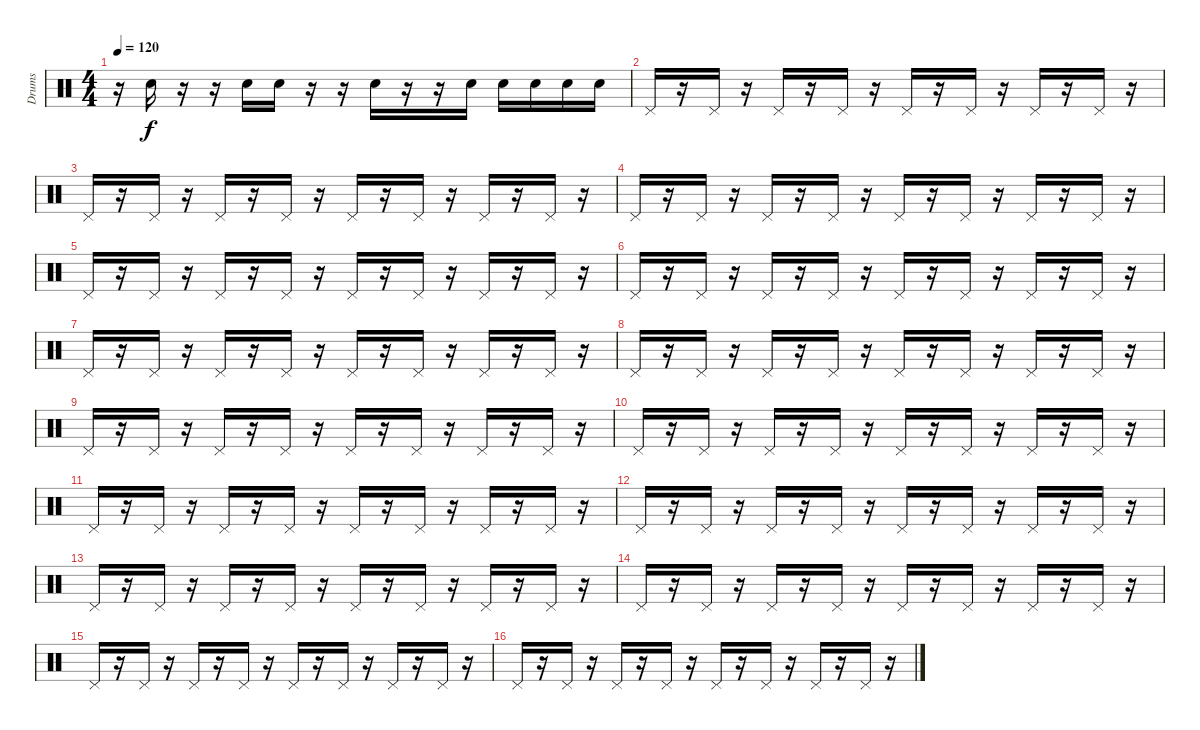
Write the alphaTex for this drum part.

\track ("Drums" "Drums") {instrument percussion}
\staff {score}
\articulation defaults
\ts (4 4)
\tempo 120
\clef neutral
\ks c
r.16{dy f} "Electric Snare (hit)".16 r.16 r.16 "Electric Snare (hit)".16 "Electric Snare (hit)".16 r.16 r.16 "Electric Snare (hit)".16 r.16 r.16 "Electric Snare (hit)".16 "Electric Snare (hit)".16 "Electric Snare (hit)".16 "Electric Snare (hit)".16 "Electric Snare (hit)".16 |
"Pedal Hi-Hat (hit)".16 r.16 "Pedal Hi-Hat (hit)".16 r.16 "Pedal Hi-Hat (hit)".16 r.16 "Pedal Hi-Hat (hit)".16 r.16 "Pedal Hi-Hat (hit)".16 r.16 "Pedal Hi-Hat (hit)".16 r.16 "Pedal Hi-Hat (hit)".16 r.16 "Pedal Hi-Hat (hit)".16 r.16 |
"Pedal Hi-Hat (hit)".16 r.16 "Pedal Hi-Hat (hit)".16 r.16 "Pedal Hi-Hat (hit)".16 r.16 "Pedal Hi-Hat (hit)".16 r.16 "Pedal Hi-Hat (hit)".16 r.16 "Pedal Hi-Hat (hit)".16 r.16 "Pedal Hi-Hat (hit)".16 r.16 "Pedal Hi-Hat (hit)".16 r.16 |
"Pedal Hi-Hat (hit)".16 r.16 "Pedal Hi-Hat (hit)".16 r.16 "Pedal Hi-Hat (hit)".16 r.16 "Pedal Hi-Hat (hit)".16 r.16 "Pedal Hi-Hat (hit)".16 r.16 "Pedal Hi-Hat (hit)".16 r.16 "Pedal Hi-Hat (hit)".16 r.16 "Pedal Hi-Hat (hit)".16 r.16 |
"Pedal Hi-Hat (hit)".16 r.16 "Pedal Hi-Hat (hit)".16 r.16 "Pedal Hi-Hat (hit)".16 r.16 "Pedal Hi-Hat (hit)".16 r.16 "Pedal Hi-Hat (hit)".16 r.16 "Pedal Hi-Hat (hit)".16 r.16 "Pedal Hi-Hat (hit)".16 r.16 "Pedal Hi-Hat (hit)".16 r.16 |
"Pedal Hi-Hat (hit)".16 r.16 "Pedal Hi-Hat (hit)".16 r.16 "Pedal Hi-Hat (hit)".16 r.16 "Pedal Hi-Hat (hit)".16 r.16 "Pedal Hi-Hat (hit)".16 r.16 "Pedal Hi-Hat (hit)".16 r.16 "Pedal Hi-Hat (hit)".16 r.16 "Pedal Hi-Hat (hit)".16 r.16 |
"Pedal Hi-Hat (hit)".16 r.16 "Pedal Hi-Hat (hit)".16 r.16 "Pedal Hi-Hat (hit)".16 r.16 "Pedal Hi-Hat (hit)".16 r.16 "Pedal Hi-Hat (hit)".16 r.16 "Pedal Hi-Hat (hit)".16 r.16 "Pedal Hi-Hat (hit)".16 r.16 "Pedal Hi-Hat (hit)".16 r.16 |
"Pedal Hi-Hat (hit)".16 r.16 "Pedal Hi-Hat (hit)".16 r.16 "Pedal Hi-Hat (hit)".16 r.16 "Pedal Hi-Hat (hit)".16 r.16 "Pedal Hi-Hat (hit)".16 r.16 "Pedal Hi-Hat (hit)".16 r.16 "Pedal Hi-Hat (hit)".16 r.16 "Pedal Hi-Hat (hit)".16 r.16 |
"Pedal Hi-Hat (hit)".16 r.16 "Pedal Hi-Hat (hit)".16 r.16 "Pedal Hi-Hat (hit)".16 r.16 "Pedal Hi-Hat (hit)".16 r.16 "Pedal Hi-Hat (hit)".16 r.16 "Pedal Hi-Hat (hit)".16 r.16 "Pedal Hi-Hat (hit)".16 r.16 "Pedal Hi-Hat (hit)".16 r.16 |
"Pedal Hi-Hat (hit)".16 r.16 "Pedal Hi-Hat (hit)".16 r.16 "Pedal Hi-Hat (hit)".16 r.16 "Pedal Hi-Hat (hit)".16 r.16 "Pedal Hi-Hat (hit)".16 r.16 "Pedal Hi-Hat (hit)".16 r.16 "Pedal Hi-Hat (hit)".16 r.16 "Pedal Hi-Hat (hit)".16 r.16 |
"Pedal Hi-Hat (hit)".16 r.16 "Pedal Hi-Hat (hit)".16 r.16 "Pedal Hi-Hat (hit)".16 r.16 "Pedal Hi-Hat (hit)".16 r.16 "Pedal Hi-Hat (hit)".16 r.16 "Pedal Hi-Hat (hit)".16 r.16 "Pedal Hi-Hat (hit)".16 r.16 "Pedal Hi-Hat (hit)".16 r.16 |
"Pedal Hi-Hat (hit)".16 r.16 "Pedal Hi-Hat (hit)".16 r.16 "Pedal Hi-Hat (hit)".16 r.16 "Pedal Hi-Hat (hit)".16 r.16 "Pedal Hi-Hat (hit)".16 r.16 "Pedal Hi-Hat (hit)".16 r.16 "Pedal Hi-Hat (hit)".16 r.16 "Pedal Hi-Hat (hit)".16 r.16 |
"Pedal Hi-Hat (hit)".16 r.16 "Pedal Hi-Hat (hit)".16 r.16 "Pedal Hi-Hat (hit)".16 r.16 "Pedal Hi-Hat (hit)".16 r.16 "Pedal Hi-Hat (hit)".16 r.16 "Pedal Hi-Hat (hit)".16 r.16 "Pedal Hi-Hat (hit)".16 r.16 "Pedal Hi-Hat (hit)".16 r.16 |
"Pedal Hi-Hat (hit)".16 r.16 "Pedal Hi-Hat (hit)".16 r.16 "Pedal Hi-Hat (hit)".16 r.16 "Pedal Hi-Hat (hit)".16 r.16 "Pedal Hi-Hat (hit)".16 r.16 "Pedal Hi-Hat (hit)".16 r.16 "Pedal Hi-Hat (hit)".16 r.16 "Pedal Hi-Hat (hit)".16 r.16 |
"Pedal Hi-Hat (hit)".16 r.16 "Pedal Hi-Hat (hit)".16 r.16 "Pedal Hi-Hat (hit)".16 r.16 "Pedal Hi-Hat (hit)".16 r.16 "Pedal Hi-Hat (hit)".16 r.16 "Pedal Hi-Hat (hit)".16 r.16 "Pedal Hi-Hat (hit)".16 r.16 "Pedal Hi-Hat (hit)".16 r.16 |
"Pedal Hi-Hat (hit)".16 r.16 "Pedal Hi-Hat (hit)".16 r.16 "Pedal Hi-Hat (hit)".16 r.16 "Pedal Hi-Hat (hit)".16 r.16 "Pedal Hi-Hat (hit)".16 r.16 "Pedal Hi-Hat (hit)".16 r.16 "Pedal Hi-Hat (hit)".16 r.16 "Pedal Hi-Hat (hit)".16 r.16
